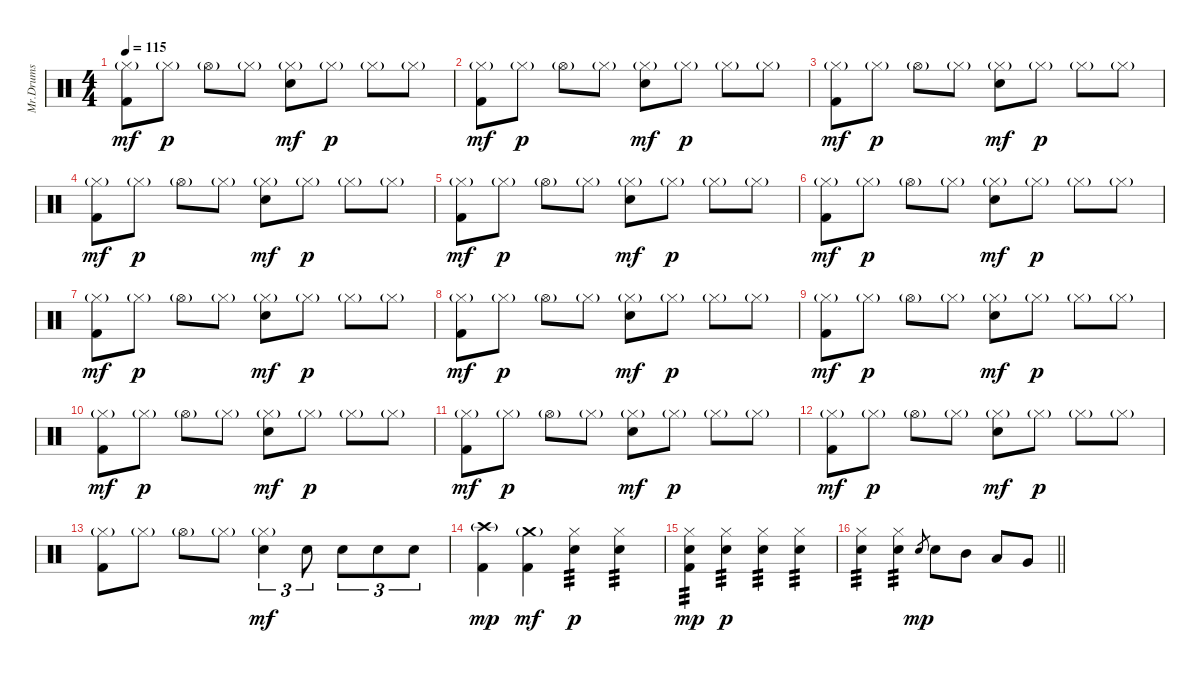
\track ("Mr.Drums" "Mr.Drums") {instrument percussion}
\staff {score}
\articulation defaults
\ts (4 4)
\tempo 115
\clef neutral
\ks c
("Hi-Hat (closed)"{g} "Kick (hit) 2").8{dy mf} "Hi-Hat (closed)"{g}.8{dy p} "Hi-Hat (open)"{g}.8 "Hi-Hat (closed)"{g}.8 ("Hi-Hat (closed)"{g} "Electric Snare (hit)").8{dy mf} "Hi-Hat (closed)"{g}.8{dy p} "Hi-Hat (closed)"{g}.8 "Hi-Hat (closed)"{g}.8 |
("Hi-Hat (closed)"{g} "Kick (hit) 2").8{dy mf} "Hi-Hat (closed)"{g}.8{dy p} "Hi-Hat (open)"{g}.8 "Hi-Hat (closed)"{g}.8 ("Hi-Hat (closed)"{g} "Electric Snare (hit)").8{dy mf} "Hi-Hat (closed)"{g}.8{dy p} "Hi-Hat (closed)"{g}.8 "Hi-Hat (closed)"{g}.8 |
("Hi-Hat (closed)"{g} "Kick (hit) 2").8{dy mf} "Hi-Hat (closed)"{g}.8{dy p} "Hi-Hat (open)"{g}.8 "Hi-Hat (closed)"{g}.8 ("Hi-Hat (closed)"{g} "Electric Snare (hit)").8{dy mf} "Hi-Hat (closed)"{g}.8{dy p} "Hi-Hat (closed)"{g}.8 "Hi-Hat (closed)"{g}.8 |
("Hi-Hat (closed)"{g} "Kick (hit) 2").8{dy mf} "Hi-Hat (closed)"{g}.8{dy p} "Hi-Hat (open)"{g}.8 "Hi-Hat (closed)"{g}.8 ("Hi-Hat (closed)"{g} "Electric Snare (hit)").8{dy mf} "Hi-Hat (closed)"{g}.8{dy p} "Hi-Hat (closed)"{g}.8 "Hi-Hat (closed)"{g}.8 |
("Hi-Hat (closed)"{g} "Kick (hit) 2").8{dy mf} "Hi-Hat (closed)"{g}.8{dy p} "Hi-Hat (open)"{g}.8 "Hi-Hat (closed)"{g}.8 ("Hi-Hat (closed)"{g} "Electric Snare (hit)").8{dy mf} "Hi-Hat (closed)"{g}.8{dy p} "Hi-Hat (closed)"{g}.8 "Hi-Hat (closed)"{g}.8 |
("Hi-Hat (closed)"{g} "Kick (hit) 2").8{dy mf} "Hi-Hat (closed)"{g}.8{dy p} "Hi-Hat (open)"{g}.8 "Hi-Hat (closed)"{g}.8 ("Hi-Hat (closed)"{g} "Electric Snare (hit)").8{dy mf} "Hi-Hat (closed)"{g}.8{dy p} "Hi-Hat (closed)"{g}.8 "Hi-Hat (closed)"{g}.8 |
("Hi-Hat (closed)"{g} "Kick (hit) 2").8{dy mf} "Hi-Hat (closed)"{g}.8{dy p} "Hi-Hat (open)"{g}.8 "Hi-Hat (closed)"{g}.8 ("Hi-Hat (closed)"{g} "Electric Snare (hit)").8{dy mf} "Hi-Hat (closed)"{g}.8{dy p} "Hi-Hat (closed)"{g}.8 "Hi-Hat (closed)"{g}.8 |
("Hi-Hat (closed)"{g} "Kick (hit) 2").8{dy mf} "Hi-Hat (closed)"{g}.8{dy p} "Hi-Hat (open)"{g}.8 "Hi-Hat (closed)"{g}.8 ("Hi-Hat (closed)"{g} "Electric Snare (hit)").8{dy mf} "Hi-Hat (closed)"{g}.8{dy p} "Hi-Hat (closed)"{g}.8 "Hi-Hat (closed)"{g}.8 |
("Hi-Hat (closed)"{g} "Kick (hit) 2").8{dy mf} "Hi-Hat (closed)"{g}.8{dy p} "Hi-Hat (open)"{g}.8 "Hi-Hat (closed)"{g}.8 ("Hi-Hat (closed)"{g} "Electric Snare (hit)").8{dy mf} "Hi-Hat (closed)"{g}.8{dy p} "Hi-Hat (closed)"{g}.8 "Hi-Hat (closed)"{g}.8 |
("Hi-Hat (closed)"{g} "Kick (hit) 2").8{dy mf} "Hi-Hat (closed)"{g}.8{dy p} "Hi-Hat (open)"{g}.8 "Hi-Hat (closed)"{g}.8 ("Hi-Hat (closed)"{g} "Electric Snare (hit)").8{dy mf} "Hi-Hat (closed)"{g}.8{dy p} "Hi-Hat (closed)"{g}.8 "Hi-Hat (closed)"{g}.8 |
("Hi-Hat (closed)"{g} "Kick (hit) 2").8{dy mf} "Hi-Hat (closed)"{g}.8{dy p} "Hi-Hat (open)"{g}.8 "Hi-Hat (closed)"{g}.8 ("Hi-Hat (closed)"{g} "Electric Snare (hit)").8{dy mf} "Hi-Hat (closed)"{g}.8{dy p} "Hi-Hat (closed)"{g}.8 "Hi-Hat (closed)"{g}.8 |
("Hi-Hat (closed)"{g} "Kick (hit) 2").8{dy mf} "Hi-Hat (closed)"{g}.8{dy p} "Hi-Hat (open)"{g}.8 "Hi-Hat (closed)"{g}.8 ("Hi-Hat (closed)"{g} "Electric Snare (hit)").8{dy mf} "Hi-Hat (closed)"{g}.8{dy p} "Hi-Hat (closed)"{g}.8 "Hi-Hat (closed)"{g}.8 |
("Hi-Hat (closed)"{g} "Kick (hit) 2").8 "Hi-Hat (closed)"{g}.8 "Hi-Hat (open)"{g}.8 "Hi-Hat (closed)"{g}.8 ("Hi-Hat (closed)"{g} "Electric Snare (hit)").4{tu (3 2) dy mf} "Electric Snare (hit)".8{tu (3 2)} "Electric Snare (hit)".8{tu (3 2)} "Electric Snare (hit)".8{tu (3 2)} "Electric Snare (hit)".8{tu (3 2)} |
("Crash high (hit)"{g} "Kick (hit) 2").4{dy mp} ("Crash medium (hit)"{g} "Kick (hit) 2").4{dy mf} ("Hi-Hat (closed)" "Electric Snare (hit)").4{tp 3 dy p} ("Hi-Hat (closed)" "Electric Snare (hit)").4{tp 3} |
("Hi-Hat (closed)" "Electric Snare (hit)" "Kick (hit) 2").4{tp 3 dy mp} ("Hi-Hat (closed)" "Electric Snare (hit)").4{tp 3 dy p} ("Hi-Hat (closed)" "Electric Snare (hit)").4{tp 3} ("Hi-Hat (closed)" "Electric Snare (hit)").4{tp 3} |
\barLineRight lightlight
("Hi-Hat (closed)" "Electric Snare (hit)").4{tp 3} ("Hi-Hat (closed)" "Electric Snare (hit)").4{tp 3} "Electric Snare (hit)".8{gr dy mp} "Electric Snare (hit)".8 "Mid Tom (hit)".8 "Low Tom (hit)".8 "Very Low Tom (hit)".8
